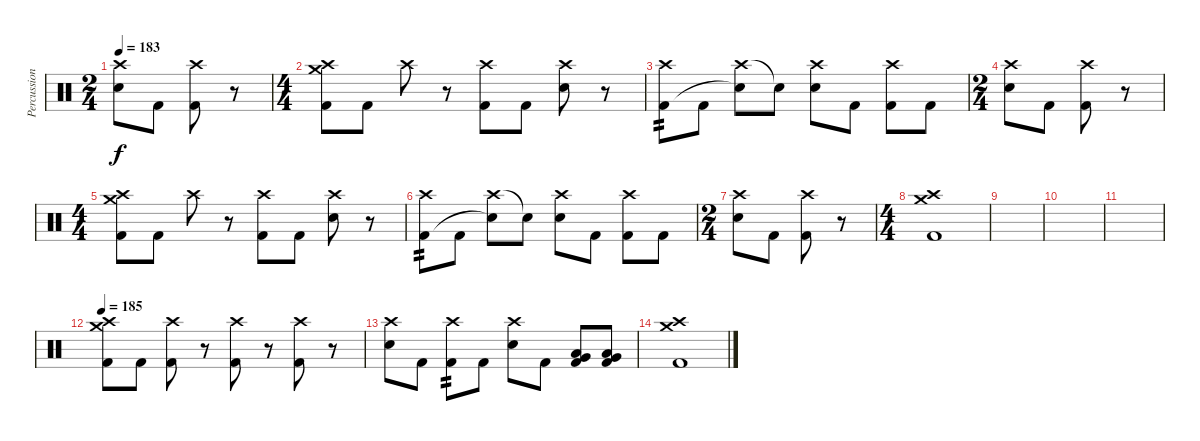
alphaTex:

\track ("Percussion" "Percussion") {instrument percussion}
\staff {score}
\articulation defaults
\ts (2 4)
\tempo 183
\clef neutral
\ks c
("Crash high (hit)" "Snare (hit) 2").8{dy f} "Kick (hit) 2".8 ("Crash high (hit)" "Kick (hit) 2").8 r.8 |
\ts (4 4)
("Crash high (hit)" "Kick (hit) 2" "Crash medium (hit)").8 "Kick (hit) 2".8 "Crash high (hit)".8 r.8 ("Kick (hit) 2" "Crash high (hit)").8 "Kick (hit) 2".8 ("Snare (hit) 2" "Crash high (hit)").8 r.8 |
("Crash high (hit)" "Kick (hit) 2").8{tp 2} "Kick (hit) 2".8 ("Crash high (hit)" "Snare (hit)"{t}).8 "Snare (hit)"{t}.8 ("Crash high (hit)" "Snare (hit) 2").8 "Kick (hit) 2".8 ("Crash high (hit)" "Kick (hit) 2").8 "Kick (hit) 2".8 |
\ts (2 4)
("Crash high (hit)" "Snare (hit) 2").8 "Kick (hit) 2".8 ("Crash high (hit)" "Kick (hit) 2").8 r.8 |
\ts (4 4)
("Crash high (hit)" "Kick (hit) 2" "Crash medium (hit)").8 "Kick (hit) 2".8 "Crash high (hit)".8 r.8 ("Kick (hit) 2" "Crash high (hit)").8 "Kick (hit) 2".8 ("Snare (hit) 2" "Crash high (hit)").8 r.8 |
("Crash high (hit)" "Kick (hit) 2").8{tp 2} "Kick (hit) 2".8 ("Crash high (hit)" "Snare (hit)"{t}).8 "Snare (hit)"{t}.8 ("Crash high (hit)" "Snare (hit) 2").8 "Kick (hit) 2".8 ("Crash high (hit)" "Kick (hit) 2").8 "Kick (hit) 2".8 |
\ts (2 4)
("Crash high (hit)" "Snare (hit) 2").8 "Kick (hit) 2".8 ("Crash high (hit)" "Kick (hit) 2").8 r.8 |
\ts (4 4)
("Crash medium (hit)" "Kick (hit) 2" "Crash high (hit)").1 |
|
|
|
\tempo 185
("Kick (hit) 2" "Crash medium (hit)" "Crash high (hit)").8 "Kick (hit) 2".8 ("Kick (hit) 2" "Crash high (hit)").8 r.8 ("Kick (hit) 2" "Crash high (hit)").8 r.8 ("Kick (hit) 2" "Crash high (hit)").8 r.8 |
("Snare (hit) 2" "Crash high (hit)").8 "Kick (hit) 2".8 ("Kick (hit) 2" "Crash high (hit)").8{tp 2} "Kick (hit) 2".8 ("Snare (hit) 2" "Crash high (hit)").8 "Kick (hit) 2".8 ("Kick (hit) 2" "Very Low Tom (hit)" "Low Floor Tom (hit)").8 ("Kick (hit) 2" "Low Floor Tom (hit)" "Very Low Tom (hit)").8 |
("Kick (hit) 2" "Crash medium (hit)" "Crash high (hit)").1
